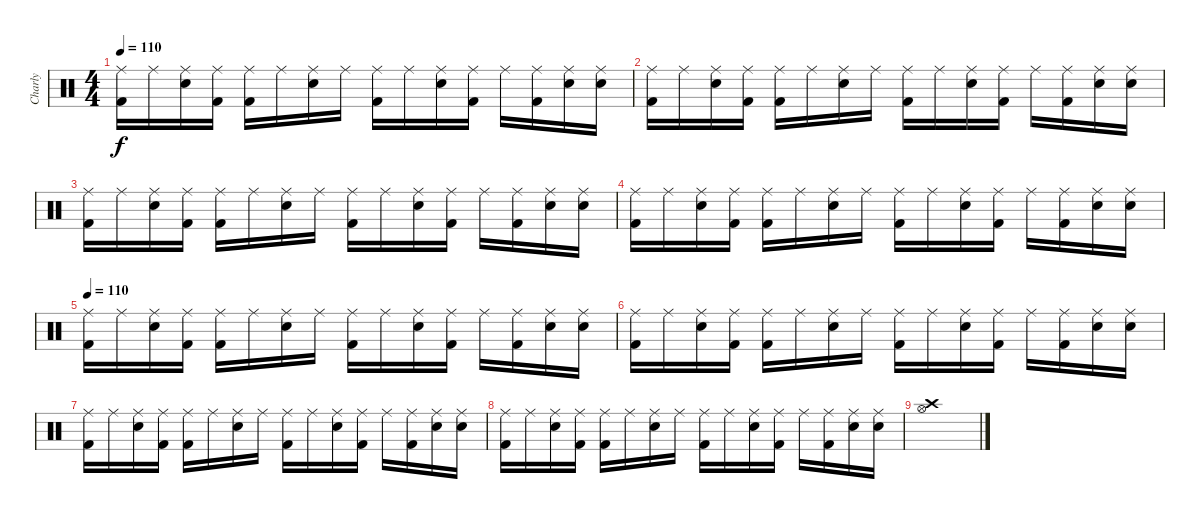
\track ("Charly" "Charly") {instrument percussion}
\staff {score}
\articulation defaults
\ts (4 4)
\tempo 110
\clef neutral
\ks c
("Ride (middle)" "Kick (hit) 2").16{dy f} "Ride (middle)".16 ("Ride (middle)" "Electric Snare (hit)").16 ("Ride (middle)" "Kick (hit) 2").16 ("Ride (middle)" "Kick (hit) 2").16 "Ride (middle)".16 ("Ride (middle)" "Electric Snare (hit)").16 "Ride (middle)".16 ("Ride (middle)" "Kick (hit) 2").16 "Ride (middle)".16 ("Ride (middle)" "Electric Snare (hit)").16 ("Ride (middle)" "Kick (hit) 2").16 "Ride (middle)".16 ("Ride (middle)" "Kick (hit) 2").16 ("Ride (middle)" "Electric Snare (hit)").16 ("Ride (middle)" "Electric Snare (hit)").16 |
("Ride (middle)" "Kick (hit) 2").16 "Ride (middle)".16 ("Ride (middle)" "Electric Snare (hit)").16 ("Ride (middle)" "Kick (hit) 2").16 ("Ride (middle)" "Kick (hit) 2").16 "Ride (middle)".16 ("Ride (middle)" "Electric Snare (hit)").16 "Ride (middle)".16 ("Ride (middle)" "Kick (hit) 2").16 "Ride (middle)".16 ("Ride (middle)" "Electric Snare (hit)").16 ("Ride (middle)" "Kick (hit) 2").16 "Ride (middle)".16 ("Ride (middle)" "Kick (hit) 2").16 ("Ride (middle)" "Electric Snare (hit)").16 ("Ride (middle)" "Electric Snare (hit)").16 |
("Ride (middle)" "Kick (hit) 2").16 "Ride (middle)".16 ("Ride (middle)" "Electric Snare (hit)").16 ("Ride (middle)" "Kick (hit) 2").16 ("Ride (middle)" "Kick (hit) 2").16 "Ride (middle)".16 ("Ride (middle)" "Electric Snare (hit)").16 "Ride (middle)".16 ("Ride (middle)" "Kick (hit) 2").16 "Ride (middle)".16 ("Ride (middle)" "Electric Snare (hit)").16 ("Ride (middle)" "Kick (hit) 2").16 "Ride (middle)".16 ("Ride (middle)" "Kick (hit) 2").16 ("Ride (middle)" "Electric Snare (hit)").16 ("Ride (middle)" "Electric Snare (hit)").16 |
("Ride (middle)" "Kick (hit) 2").16 "Ride (middle)".16 ("Ride (middle)" "Electric Snare (hit)").16 ("Ride (middle)" "Kick (hit) 2").16 ("Ride (middle)" "Kick (hit) 2").16 "Ride (middle)".16 ("Ride (middle)" "Electric Snare (hit)").16 "Ride (middle)".16 ("Ride (middle)" "Kick (hit) 2").16 "Ride (middle)".16 ("Ride (middle)" "Electric Snare (hit)").16 ("Ride (middle)" "Kick (hit) 2").16 "Ride (middle)".16 ("Ride (middle)" "Kick (hit) 2").16 ("Ride (middle)" "Electric Snare (hit)").16 ("Ride (middle)" "Electric Snare (hit)").16 |
\tempo 110
("Ride (middle)" "Kick (hit) 2").16 "Ride (middle)".16 ("Ride (middle)" "Electric Snare (hit)").16 ("Ride (middle)" "Kick (hit) 2").16 ("Ride (middle)" "Kick (hit) 2").16 "Ride (middle)".16 ("Ride (middle)" "Electric Snare (hit)").16 "Ride (middle)".16 ("Ride (middle)" "Kick (hit) 2").16 "Ride (middle)".16 ("Ride (middle)" "Electric Snare (hit)").16 ("Ride (middle)" "Kick (hit) 2").16 "Ride (middle)".16 ("Ride (middle)" "Kick (hit) 2").16 ("Ride (middle)" "Electric Snare (hit)").16 ("Ride (middle)" "Electric Snare (hit)").16 |
("Ride (middle)" "Kick (hit) 2").16 "Ride (middle)".16 ("Ride (middle)" "Electric Snare (hit)").16 ("Ride (middle)" "Kick (hit) 2").16 ("Ride (middle)" "Kick (hit) 2").16 "Ride (middle)".16 ("Ride (middle)" "Electric Snare (hit)").16 "Ride (middle)".16 ("Ride (middle)" "Kick (hit) 2").16 "Ride (middle)".16 ("Ride (middle)" "Electric Snare (hit)").16 ("Ride (middle)" "Kick (hit) 2").16 "Ride (middle)".16 ("Ride (middle)" "Kick (hit) 2").16 ("Ride (middle)" "Electric Snare (hit)").16 ("Ride (middle)" "Electric Snare (hit)").16 |
("Ride (middle)" "Kick (hit) 2").16 "Ride (middle)".16 ("Ride (middle)" "Electric Snare (hit)").16 ("Ride (middle)" "Kick (hit) 2").16 ("Ride (middle)" "Kick (hit) 2").16 "Ride (middle)".16 ("Ride (middle)" "Electric Snare (hit)").16 "Ride (middle)".16 ("Ride (middle)" "Kick (hit) 2").16 "Ride (middle)".16 ("Ride (middle)" "Electric Snare (hit)").16 ("Ride (middle)" "Kick (hit) 2").16 "Ride (middle)".16 ("Ride (middle)" "Kick (hit) 2").16 ("Ride (middle)" "Electric Snare (hit)").16 ("Ride (middle)" "Electric Snare (hit)").16 |
("Ride (middle)" "Kick (hit) 2").16 "Ride (middle)".16 ("Ride (middle)" "Electric Snare (hit)").16 ("Ride (middle)" "Kick (hit) 2").16 ("Ride (middle)" "Kick (hit) 2").16 "Ride (middle)".16 ("Ride (middle)" "Electric Snare (hit)").16 "Ride (middle)".16 ("Ride (middle)" "Kick (hit) 2").16 "Ride (middle)".16 ("Ride (middle)" "Electric Snare (hit)").16 ("Ride (middle)" "Kick (hit) 2").16 "Ride (middle)".16 ("Ride (middle)" "Kick (hit) 2").16 ("Ride (middle)" "Electric Snare (hit)").16 ("Ride (middle)" "Electric Snare (hit)").16 |
("Hi-Hat (open)" "Crash high (hit)").1
